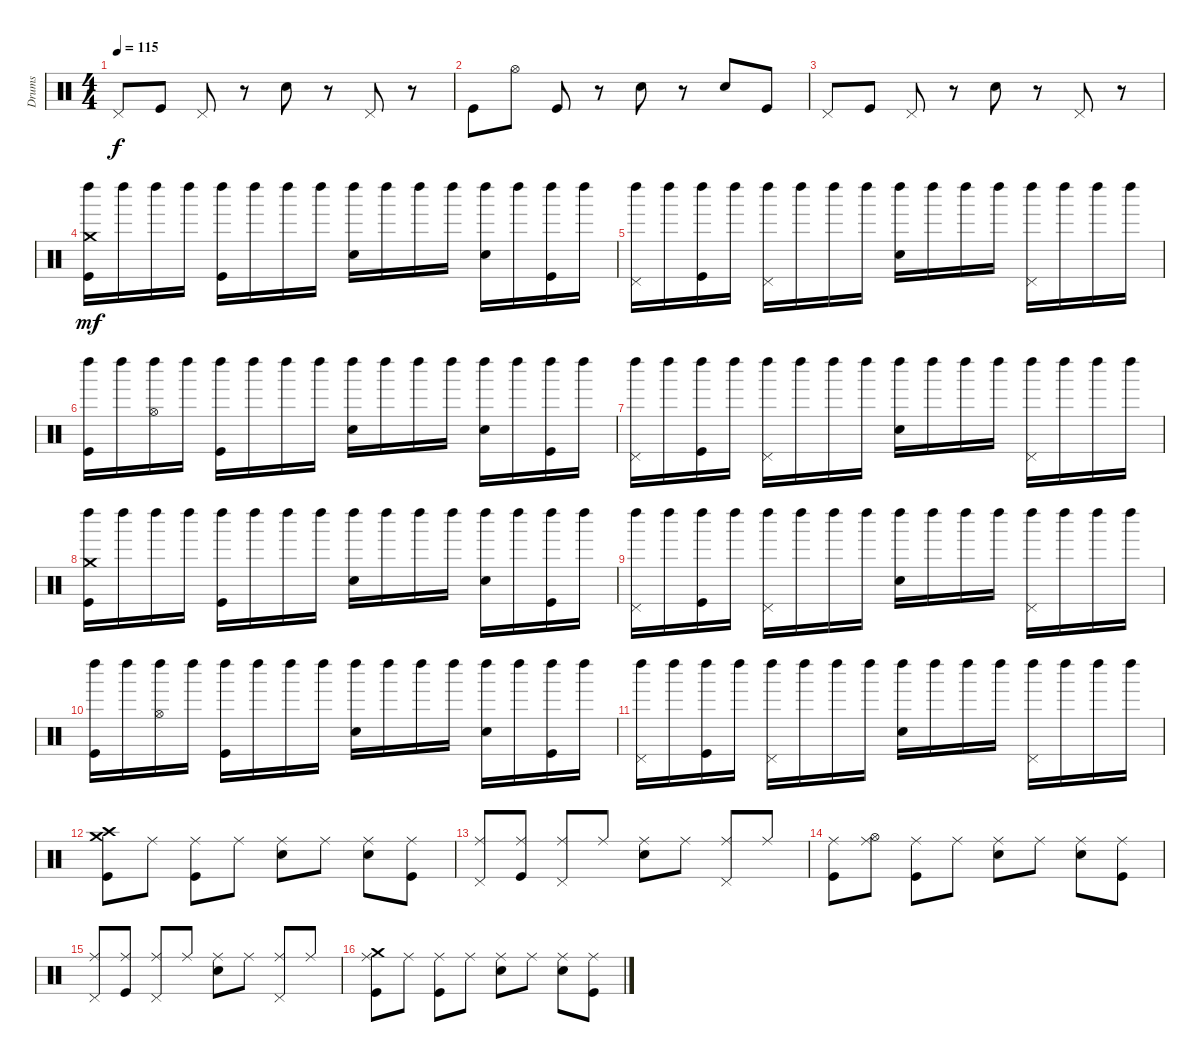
\track ("Drums" "Drums") {instrument percussion}
\staff {score}
\articulation defaults
\ts (4 4)
\tempo 115
\clef neutral
\ks c "Pedal Hi-Hat (hit)".8{dy f} "Kick (hit)".8 "Pedal Hi-Hat (hit)".8
r.8 "Snare (hit) 2".8 r.8 "Pedal Hi-Hat (hit)".8 r.8 |
"Kick (hit)".8 "Hi-Hat (open)".8 "Kick (hit)".8 r.8 "Snare (hit) 2".8 r.8 "Snare (hit) 2".8 "Kick (hit)".8 |
"Pedal Hi-Hat (hit)".8 "Kick (hit)".8 "Pedal Hi-Hat (hit)".8 r.8 "Snare (hit) 2".8 r.8 "Pedal Hi-Hat (hit)".8 r.8 |
("Left Maraca (hit)" "Crash medium (hit)" "Kick (hit)").16{dy mf} "Left Maraca (hit)".16 "Left Maraca (hit)".16 "Left Maraca (hit)".16 ("Left Maraca (hit)" "Kick (hit)").16 "Left Maraca (hit)".16 "Left Maraca (hit)".16 "Left Maraca (hit)".16 ("Left Maraca (hit)" "Snare (hit) 2").16 "Left Maraca (hit)".16 "Left Maraca (hit)".16 "Left Maraca (hit)".16 ("Left Maraca (hit)" "Snare (hit) 2").16 "Left Maraca (hit)".16 ("Left Maraca (hit)" "Kick (hit)").16 "Left Maraca (hit)".16 |
("Left Maraca (hit)" "Pedal Hi-Hat (hit)").16 "Left Maraca (hit)".16 ("Left Maraca (hit)" "Kick (hit)").16 "Left Maraca (hit)".16 ("Left Maraca (hit)" "Pedal Hi-Hat (hit)").16 "Left Maraca (hit)".16 "Left Maraca (hit)".16 "Left Maraca (hit)".16 ("Left Maraca (hit)" "Snare (hit) 2").16 "Left Maraca (hit)".16 "Left Maraca (hit)".16 "Left Maraca (hit)".16 ("Left Maraca (hit)" "Pedal Hi-Hat (hit)").16 "Left Maraca (hit)".16 "Left Maraca (hit)".16 "Left Maraca (hit)".16 |
("Left Maraca (hit)" "Kick (hit)").16 "Left Maraca (hit)".16 ("Left Maraca (hit)" "Hi-Hat (open)").16 "Left Maraca (hit)".16 ("Left Maraca (hit)" "Kick (hit)").16 "Left Maraca (hit)".16 "Left Maraca (hit)".16 "Left Maraca (hit)".16 ("Left Maraca (hit)" "Snare (hit) 2").16 "Left Maraca (hit)".16 "Left Maraca (hit)".16 "Left Maraca (hit)".16 ("Left Maraca (hit)" "Snare (hit) 2").16 "Left Maraca (hit)".16 ("Left Maraca (hit)" "Kick (hit)").16 "Left Maraca (hit)".16 |
("Left Maraca (hit)" "Pedal Hi-Hat (hit)").16 "Left Maraca (hit)".16 ("Left Maraca (hit)" "Kick (hit)").16 "Left Maraca (hit)".16 ("Left Maraca (hit)" "Pedal Hi-Hat (hit)").16 "Left Maraca (hit)".16 "Left Maraca (hit)".16 "Left Maraca (hit)".16 ("Left Maraca (hit)" "Snare (hit) 2").16 "Left Maraca (hit)".16 "Left Maraca (hit)".16 "Left Maraca (hit)".16 ("Left Maraca (hit)" "Pedal Hi-Hat (hit)").16 "Left Maraca (hit)".16 "Left Maraca (hit)".16 "Left Maraca (hit)".16 |
("Left Maraca (hit)" "Crash medium (hit)" "Kick (hit)").16 "Left Maraca (hit)".16 "Left Maraca (hit)".16 "Left Maraca (hit)".16 ("Left Maraca (hit)" "Kick (hit)").16 "Left Maraca (hit)".16 "Left Maraca (hit)".16 "Left Maraca (hit)".16 ("Left Maraca (hit)" "Snare (hit) 2").16 "Left Maraca (hit)".16 "Left Maraca (hit)".16 "Left Maraca (hit)".16 ("Left Maraca (hit)" "Snare (hit) 2").16 "Left Maraca (hit)".16 ("Left Maraca (hit)" "Kick (hit)").16 "Left Maraca (hit)".16 |
("Left Maraca (hit)" "Pedal Hi-Hat (hit)").16 "Left Maraca (hit)".16 ("Left Maraca (hit)" "Kick (hit)").16 "Left Maraca (hit)".16 ("Left Maraca (hit)" "Pedal Hi-Hat (hit)").16 "Left Maraca (hit)".16 "Left Maraca (hit)".16 "Left Maraca (hit)".16 ("Left Maraca (hit)" "Snare (hit) 2").16 "Left Maraca (hit)".16 "Left Maraca (hit)".16 "Left Maraca (hit)".16 ("Left Maraca (hit)" "Pedal Hi-Hat (hit)").16 "Left Maraca (hit)".16 "Left Maraca (hit)".16 "Left Maraca (hit)".16 |
("Left Maraca (hit)" "Kick (hit)").16 "Left Maraca (hit)".16 ("Left Maraca (hit)" "Hi-Hat (open)").16 "Left Maraca (hit)".16 ("Left Maraca (hit)" "Kick (hit)").16 "Left Maraca (hit)".16 "Left Maraca (hit)".16 "Left Maraca (hit)".16 ("Left Maraca (hit)" "Snare (hit) 2").16 "Left Maraca (hit)".16 "Left Maraca (hit)".16 "Left Maraca (hit)".16 ("Left Maraca (hit)" "Snare (hit) 2").16 "Left Maraca (hit)".16 ("Left Maraca (hit)" "Kick (hit)").16 "Left Maraca (hit)".16 |
("Left Maraca (hit)" "Pedal Hi-Hat (hit)").16 "Left Maraca (hit)".16 ("Left Maraca (hit)" "Kick (hit)").16 "Left Maraca (hit)".16 ("Left Maraca (hit)" "Pedal Hi-Hat (hit)").16 "Left Maraca (hit)".16 "Left Maraca (hit)".16 "Left Maraca (hit)".16 ("Left Maraca (hit)" "Snare (hit) 2").16 "Left Maraca (hit)".16 "Left Maraca (hit)".16 "Left Maraca (hit)".16 ("Left Maraca (hit)" "Pedal Hi-Hat (hit)").16 "Left Maraca (hit)".16 "Left Maraca (hit)".16 "Left Maraca (hit)".16 |
("Crash high (hit)" "Crash medium (hit)" "Kick (hit)").8 "Ride (middle)".8 ("Ride (middle)" "Kick (hit)").8 "Ride (middle)".8 ("Ride (middle)" "Snare (hit) 2").8 "Ride (middle)".8 ("Ride (middle)" "Snare (hit) 2").8 ("Ride (middle)" "Kick (hit)").8 |
("Ride (middle)" "Pedal Hi-Hat (hit)").8 ("Ride (middle)" "Kick (hit)").8 ("Ride (middle)" "Pedal Hi-Hat (hit)").8 "Ride (middle)".8 ("Ride (middle)" "Snare (hit) 2").8 "Ride (middle)".8 ("Ride (middle)" "Pedal Hi-Hat (hit)").8 "Ride (middle)".8 |
("Ride (middle)" "Kick (hit)").8 ("Ride (middle)" "Hi-Hat (open)").8 ("Ride (middle)" "Kick (hit)").8 "Ride (middle)".8 ("Ride (middle)" "Snare (hit) 2").8 "Ride (middle)".8 ("Ride (middle)" "Snare (hit) 2").8 ("Ride (middle)" "Kick (hit)").8 |
("Ride (middle)" "Pedal Hi-Hat (hit)").8 ("Ride (middle)" "Kick (hit)").8 ("Ride (middle)" "Pedal Hi-Hat (hit)").8 "Ride (middle)".8 ("Ride (middle)" "Snare (hit) 2").8 "Ride (middle)".8 ("Ride (middle)" "Pedal Hi-Hat (hit)").8 "Ride (middle)".8 |
("Ride (middle)" "Crash medium (hit)" "Kick (hit)").8 "Ride (middle)".8 ("Ride (middle)" "Kick (hit)").8 "Ride (middle)".8 ("Ride (middle)" "Snare (hit) 2").8 "Ride (middle)".8 ("Ride (middle)" "Snare (hit) 2").8 ("Ride (middle)" "Kick (hit)").8
